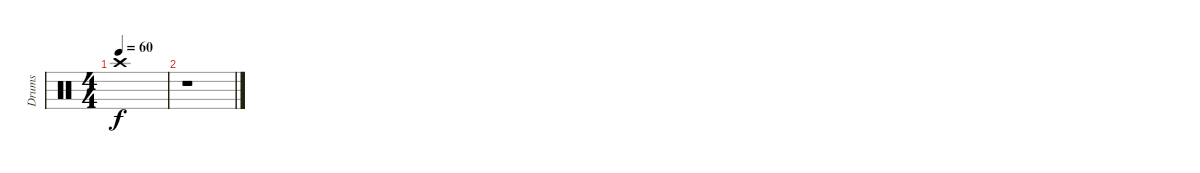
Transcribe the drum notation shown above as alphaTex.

\track ("Drums" "Drums") {instrument percussion}
\staff {score}
\articulation defaults
\ts (4 4)
\tempo 60
\clef neutral
\ks c "Crash high (hit)".1{dy f}
|
r.1
